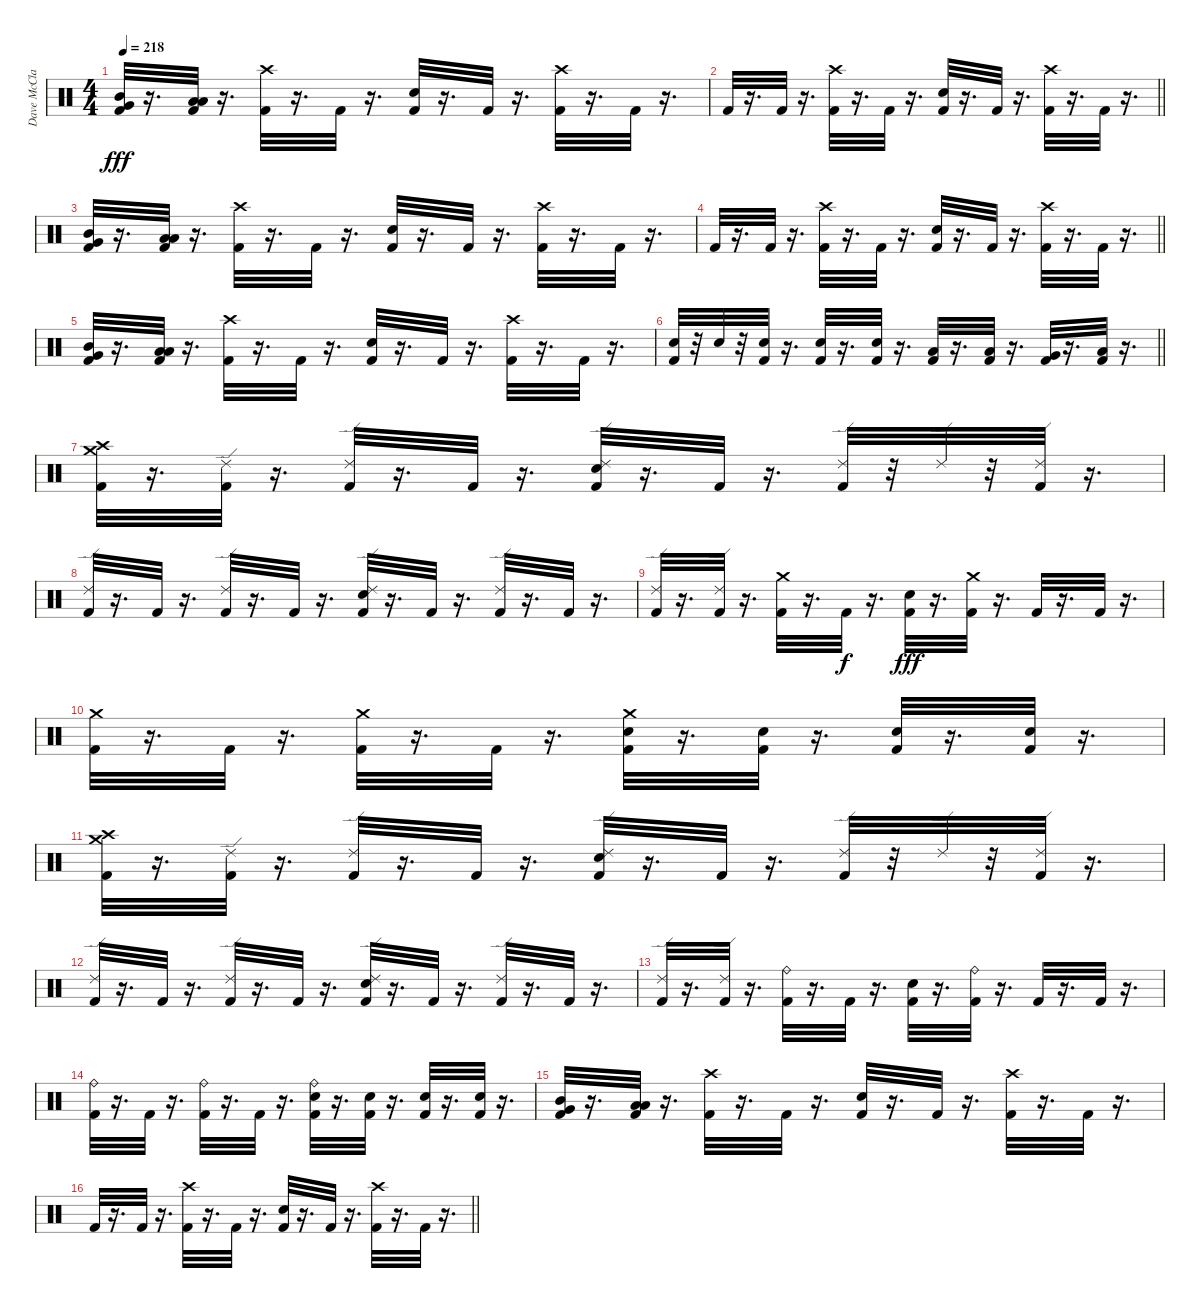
\track ("Dave McClain" "Dave McCla") {instrument percussion}
\staff {score}
\articulation defaults
\ts (4 4)
\tempo 218
\clef neutral
\ks c
("Very Low Tom (hit)" "Mid Tom (hit)" "Kick (hit) 2").32{dy fff} r.16{d} ("Low Tom (hit)" "Low Floor Tom (hit)" "Kick (hit) 2").32 r.16{d} ("Kick (hit) 2" "Crash high (hit)").32 r.16{d} "Kick (hit) 2".32 r.16{d} ("Kick (hit) 2" "Snare (hit) 2").32 r.16{d} "Kick (hit) 2".32 r.16{d} ("Kick (hit) 2" "Crash high (hit)").32 r.16{d} "Kick (hit) 2".32 r.16{d} |
\barLineRight lightlight "Kick (hit) 2".32
r.16{d} "Kick (hit) 2".32 r.16{d} ("Kick (hit) 2" "Crash high (hit)").32 r.16{d} "Kick (hit) 2".32 r.16{d} ("Kick (hit) 2" "Snare (hit) 2").32 r.16{d} "Kick (hit) 2".32 r.16{d} ("Kick (hit) 2" "Crash high (hit)").32 r.16{d} "Kick (hit) 2".32 r.16{d} |
("Very Low Tom (hit)" "Mid Tom (hit)" "Kick (hit) 2").32 r.16{d} ("Kick (hit) 2" "Low Tom (hit)" "Low Floor Tom (hit)").32 r.16{d} ("Kick (hit) 2" "Crash high (hit)").32 r.16{d} "Kick (hit) 2".32 r.16{d} ("Kick (hit) 2" "Snare (hit) 2").32 r.16{d} "Kick (hit) 2".32 r.16{d} ("Kick (hit) 2" "Crash high (hit)").32 r.16{d} "Kick (hit) 2".32 r.16{d} |
\barLineRight lightlight "Kick (hit) 2".32
r.16{d} "Kick (hit) 2".32 r.16{d} ("Kick (hit) 2" "Crash high (hit)").32 r.16{d} "Kick (hit) 2".32 r.16{d} ("Kick (hit) 2" "Snare (hit) 2").32 r.16{d} "Kick (hit) 2".32 r.16{d} ("Kick (hit) 2" "Crash high (hit)").32 r.16{d} "Kick (hit) 2".32 r.16{d} |
("Very Low Tom (hit)" "Mid Tom (hit)" "Kick (hit) 2").32 r.16{d} ("Low Tom (hit)" "Low Floor Tom (hit)" "Kick (hit) 2").32 r.16{d} ("Kick (hit) 2" "Crash high (hit)").32 r.16{d} "Kick (hit) 2".32 r.16{d} ("Kick (hit) 2" "Snare (hit) 2").32 r.16{d} "Kick (hit) 2".32 r.16{d} ("Kick (hit) 2" "Crash high (hit)").32 r.16{d} "Kick (hit) 2".32 r.16{d} |
\barLineRight lightlight
("Snare (hit) 2" "Kick (hit) 2").32 r.32 "Snare (hit) 2".32 r.32 ("Snare (hit) 2" "Kick (hit) 2").32 r.16{d} ("Snare (hit) 2" "Kick (hit) 2").32 r.16{d} ("Snare (hit) 2" "Kick (hit) 2").32 r.16{d} ("Low Tom (hit)" "Kick (hit) 2").32 r.16{d} ("Low Tom (hit)" "Kick (hit) 2").32 r.16{d} ("Very Low Tom (hit)" "Kick (hit) 2").32 r.16{d} ("Low Floor Tom (hit)" "Kick (hit) 2").32 r.16{d} |
("Crash medium (hit)" "Crash high (hit)" "Kick (hit) 2").32 r.16{d} ("Ride (edge) 2" "Kick (hit) 2").32 r.16{d} ("Ride (edge) 2" "Kick (hit) 2").32 r.16{d} "Kick (hit) 2".32 r.16{d} ("Ride (edge) 2" "Snare (hit) 2" "Kick (hit) 2").32 r.16{d} "Kick (hit) 2".32 r.16{d} ("Ride (edge) 2" "Kick (hit) 2").32 r.32 "Ride (edge) 2".32 r.32 ("Ride (edge) 2" "Kick (hit) 2").32 r.16{d} |
("Ride (edge) 2" "Kick (hit) 2").32 r.16{d} "Kick (hit) 2".32 r.16{d} ("Ride (edge) 2" "Kick (hit) 2").32 r.16{d} "Kick (hit) 2".32 r.16{d} ("Ride (edge) 2" "Snare (hit) 2" "Kick (hit) 2").32 r.16{d} "Kick (hit) 2".32 r.16{d} ("Ride (edge) 2" "Kick (hit) 2").32 r.16{d} "Kick (hit) 2".32 r.16{d} |
("Ride (edge) 2" "Kick (hit) 2").32 r.16{d} ("Ride (edge) 2" "Kick (hit) 2").32 r.16{d} ("Crash medium (hit)" "Kick (hit) 2").32 r.16{d} "Kick (hit) 2".32{dy f} r.16{d} ("Snare (hit) 2" "Kick (hit) 2").32{dy fff} r.16{d} ("Crash medium (hit)" "Kick (hit) 2").32 r.16{d} "Kick (hit) 2".32 r.16{d} "Kick (hit) 2".32 r.16{d} |
("Crash medium (hit)" "Kick (hit) 2").32 r.16{d} "Kick (hit) 2".32 r.16{d} ("Crash medium (hit)" "Kick (hit) 2").32 r.16{d} "Kick (hit) 2".32 r.16{d} ("Crash medium (hit)" "Snare (hit) 2" "Kick (hit) 2").32 r.16{d} ("Snare (hit) 2" "Kick (hit) 2").32 r.16{d} ("Snare (hit) 2" "Kick (hit) 2").32 r.16{d} ("Snare (hit) 2" "Kick (hit) 2").32 r.16{d} |
("Crash medium (hit)" "Crash high (hit)" "Kick (hit) 2").32 r.16{d} ("Ride (edge) 2" "Kick (hit) 2").32 r.16{d} ("Ride (edge) 2" "Kick (hit) 2").32 r.16{d} "Kick (hit) 2".32 r.16{d} ("Ride (edge) 2" "Snare (hit) 2" "Kick (hit) 2").32 r.16{d} "Kick (hit) 2".32 r.16{d} ("Ride (edge) 2" "Kick (hit) 2").32 r.32 "Ride (edge) 2".32 r.32 ("Ride (edge) 2" "Kick (hit) 2").32 r.16{d} |
("Ride (edge) 2" "Kick (hit) 2").32 r.16{d} "Kick (hit) 2".32 r.16{d} ("Ride (edge) 2" "Kick (hit) 2").32 r.16{d} "Kick (hit) 2".32 r.16{d} ("Ride (edge) 2" "Snare (hit) 2" "Kick (hit) 2").32 r.16{d} "Kick (hit) 2".32 r.16{d} ("Ride (edge) 2" "Kick (hit) 2").32 r.16{d} "Kick (hit) 2".32 r.16{d} |
("Ride (edge) 2" "Kick (hit) 2").32 r.16{d} ("Ride (edge) 2" "Kick (hit) 2").32 r.16{d} ("Ride (bell)" "Kick (hit) 2").32 r.16{d} "Kick (hit) 2".32 r.16{d} ("Snare (hit) 2" "Kick (hit) 2").32 r.16{d} ("Ride (bell)" "Kick (hit) 2").32 r.16{d} "Kick (hit) 2".32 r.16{d} "Kick (hit) 2".32 r.16{d} |
("Ride (bell)" "Kick (hit) 2").32 r.16{d} "Kick (hit) 2".32 r.16{d} ("Ride (bell)" "Kick (hit) 2").32 r.16{d} "Kick (hit) 2".32 r.16{d} ("Ride (bell)" "Snare (hit) 2" "Kick (hit) 2").32 r.16{d} ("Snare (hit) 2" "Kick (hit) 2").32 r.16{d} ("Snare (hit) 2" "Kick (hit) 2").32 r.16{d} ("Snare (hit) 2" "Kick (hit) 2").32 r.16{d} |
("Very Low Tom (hit)" "Mid Tom (hit)" "Kick (hit) 2").32 r.16{d} ("Kick (hit) 2" "Low Tom (hit)" "Low Floor Tom (hit)").32 r.16{d} ("Kick (hit) 2" "Crash high (hit)").32 r.16{d} "Kick (hit) 2".32 r.16{d} ("Kick (hit) 2" "Snare (hit) 2").32 r.16{d} "Kick (hit) 2".32 r.16{d} ("Kick (hit) 2" "Crash high (hit)").32 r.16{d} "Kick (hit) 2".32 r.16{d} |
\barLineRight lightlight "Kick (hit) 2".32
r.16{d} "Kick (hit) 2".32 r.16{d} ("Kick (hit) 2" "Crash high (hit)").32 r.16{d} "Kick (hit) 2".32 r.16{d} ("Kick (hit) 2" "Snare (hit) 2").32 r.16{d} "Kick (hit) 2".32 r.16{d} ("Kick (hit) 2" "Crash high (hit)").32 r.16{d} "Kick (hit) 2".32 r.16{d}
